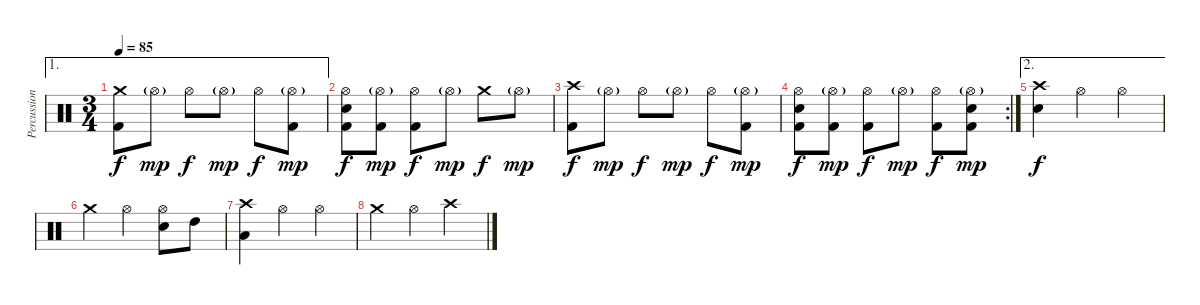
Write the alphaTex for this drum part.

\track ("Percussion" "Percussion") {instrument percussion}
\staff {score}
\articulation defaults
\ae 1
\ts (3 4)
\tempo 85
\clef neutral
\ks c
("Crash medium (hit)" "Kick (hit) 2").8{dy f} "Hi-Hat (open)"{g}.8{dy mp} "Hi-Hat (open)".8{dy f} "Hi-Hat (open)"{g}.8{dy mp} "Hi-Hat (open)".8{dy f} ("Hi-Hat (open)"{g} "Kick (hit) 2").8{dy mp} |
("Hi-Hat (open)" "Snare (hit) 2" "Kick (hit) 2").8{dy f} ("Hi-Hat (open)"{g} "Kick (hit) 2").8{dy mp} ("Hi-Hat (open)" "Kick (hit) 2").8{dy f} "Hi-Hat (open)"{g}.8{dy mp} "Crash medium (hit)".8{dy f} "Hi-Hat (open)"{g}.8{dy mp} |
("Crash high (hit)" "Kick (hit) 2").8{dy f} "Hi-Hat (open)"{g}.8{dy mp} "Hi-Hat (open)".8{dy f} "Hi-Hat (open)"{g}.8{dy mp} "Hi-Hat (open)".8{dy f} ("Hi-Hat (open)"{g} "Kick (hit) 2").8{dy mp} |
\rc 2
("Hi-Hat (open)" "Snare (hit) 2" "Kick (hit) 2").8{dy f} ("Hi-Hat (open)"{g} "Kick (hit) 2").8{dy mp} ("Hi-Hat (open)" "Kick (hit) 2").8{dy f} "Hi-Hat (open)"{g}.8{dy mp} ("Hi-Hat (open)" "Kick (hit) 2").8{dy f} ("Hi-Hat (open)"{g} "Snare (hit) 2" "Kick (hit) 2").8{dy mp} |
\ae 2
("Crash high (hit)" "Snare (hit) 2").4{dy f} "Hi-Hat (open)".4 "Hi-Hat (open)".4 |
"Crash medium (hit)".4 "Hi-Hat (open)".4 ("Hi-Hat (open)" "Snare (hit) 2").8 "High Tom (hit)".8 |
("Crash high (hit)" "Low Floor Tom (hit)").4 "Hi-Hat (open)".4 "Hi-Hat (open)".4 |
"Crash medium (hit)".4 "Hi-Hat (open)".4 "Crash high (hit)".4
